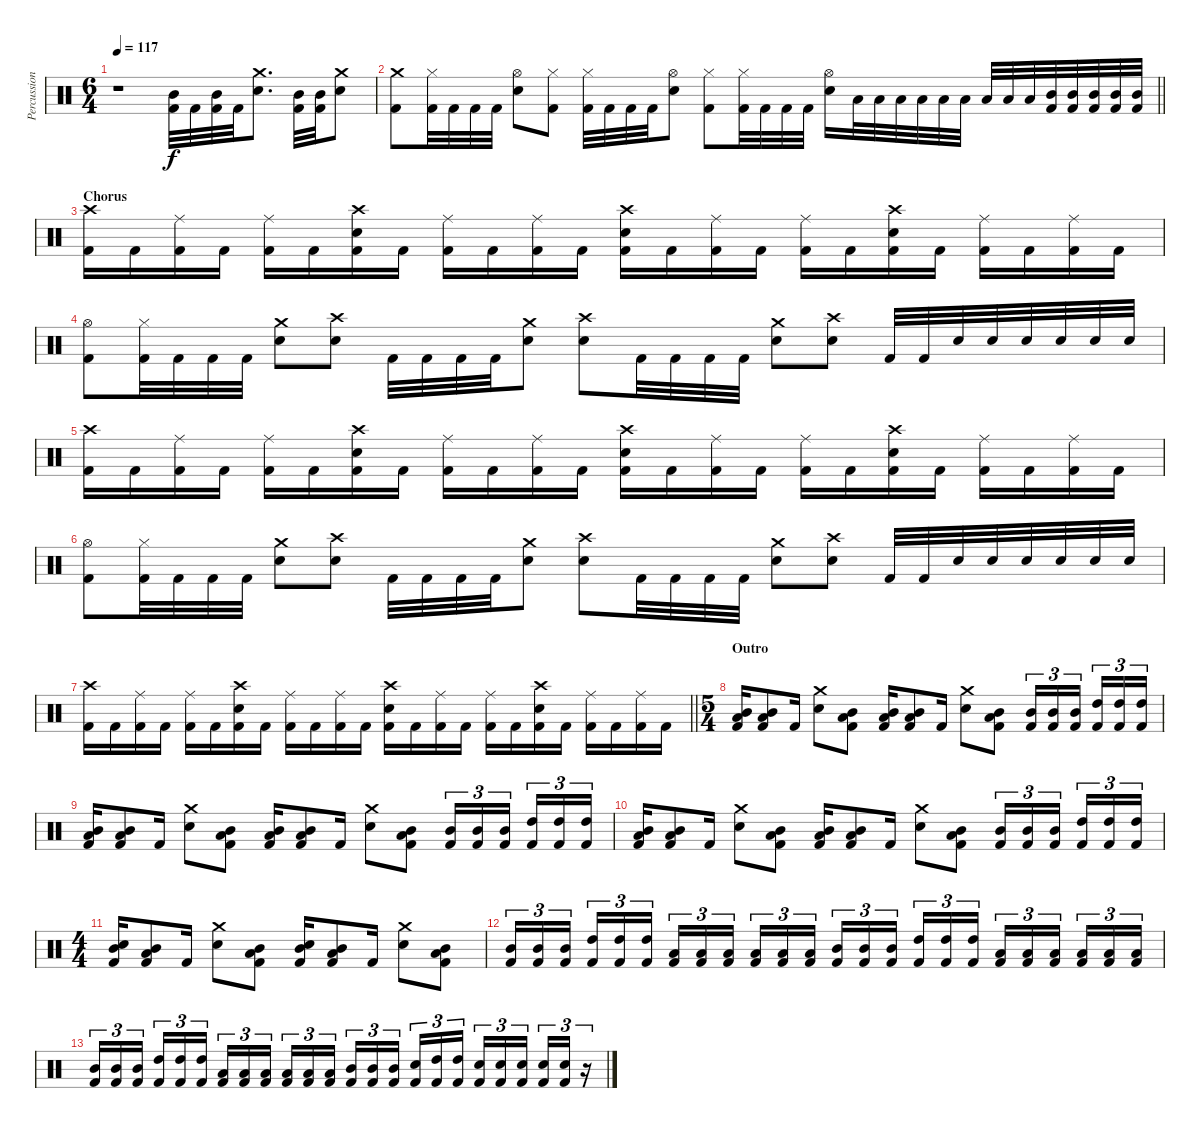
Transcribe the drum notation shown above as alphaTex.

\track ("Percussion" "Percussion") {instrument percussion}
\staff {score}
\articulation defaults
\ts (6 4)
\tempo 117
\clef neutral
\ks c
r.1{dy f} ("Mid Tom (hit)" "Kick (hit) 2").32 "Kick (hit) 2".32 ("Mid Tom (hit)" "Kick (hit) 2").32 "Kick (hit) 2".32 ("Crash medium (hit)" "Electric Snare (hit)").8{d} ("Mid Tom (hit)" "Kick (hit) 2").32 ("Mid Tom (hit)" "Kick (hit) 2").32 ("Crash medium (hit)" "Electric Snare (hit)").8 |
\barLineRight lightlight
("Crash medium (hit)" "Kick (hit) 2").8 ("Hi-Hat (closed)" "Kick (hit) 2").32 "Kick (hit) 2".32 "Kick (hit) 2".32 "Kick (hit) 2".32 ("Hi-Hat (open)" "Electric Snare (hit)").8 ("Hi-Hat (closed)" "Kick (hit) 2").8 ("Hi-Hat (closed)" "Kick (hit) 2").32 "Kick (hit) 2".32 "Kick (hit) 2".32 "Kick (hit) 2".32 ("Hi-Hat (open)" "Electric Snare (hit)").8 ("Hi-Hat (closed)" "Kick (hit) 2").8 ("Hi-Hat (closed)" "Kick (hit) 2").32 "Kick (hit) 2".32 "Kick (hit) 2".32 "Kick (hit) 2".32 ("Hi-Hat (open)" "Electric Snare (hit)").16 "Low Tom (hit)".32 "Low Tom (hit)".32 "Low Tom (hit)".32 "Low Tom (hit)".32 "Low Tom (hit)".32 "Low Tom (hit)".32 "Low Tom (hit)".32 "Low Tom (hit)".32 "Low Tom (hit)".32 ("Mid Tom (hit)" "Kick (hit) 2").32 ("Mid Tom (hit)" "Kick (hit) 2").32 ("Mid Tom (hit)" "Kick (hit) 2").32 ("Mid Tom (hit)" "Kick (hit) 2").32 ("Mid Tom (hit)" "Kick (hit) 2").32 |
\section ("" "Chorus")
("Crash high (hit)" "Kick (hit) 2").16 "Kick (hit) 2".16 ("Ride (middle)" "Kick (hit) 2").16 "Kick (hit) 2".16 ("Ride (middle)" "Kick (hit) 2").16 "Kick (hit) 2".16 ("Crash high (hit)" "Electric Snare (hit)" "Kick (hit) 2").16 "Kick (hit) 2".16 ("Ride (middle)" "Kick (hit) 2").16 "Kick (hit) 2".16 ("Ride (middle)" "Kick (hit) 2").16 "Kick (hit) 2".16 ("Crash high (hit)" "Electric Snare (hit)" "Kick (hit) 2").16 "Kick (hit) 2".16 ("Ride (middle)" "Kick (hit) 2").16 "Kick (hit) 2".16 ("Ride (middle)" "Kick (hit) 2").16 "Kick (hit) 2".16 ("Crash high (hit)" "Electric Snare (hit)" "Kick (hit) 2").16 "Kick (hit) 2".16 ("Ride (middle)" "Kick (hit) 2").16 "Kick (hit) 2".16 ("Ride (middle)" "Kick (hit) 2").16 "Kick (hit) 2".16 |
("Hi-Hat (open)" "Kick (hit) 2").8 ("Hi-Hat (closed)" "Kick (hit) 2").32 "Kick (hit) 2".32 "Kick (hit) 2".32 "Kick (hit) 2".32 ("Crash medium (hit)" "Electric Snare (hit)").8 ("Crash high (hit)" "Electric Snare (hit)").8 "Kick (hit) 2".32 "Kick (hit) 2".32 "Kick (hit) 2".32 "Kick (hit) 2".32 ("Crash medium (hit)" "Electric Snare (hit)").8 ("Crash high (hit)" "Electric Snare (hit)").8 "Kick (hit) 2".32 "Kick (hit) 2".32 "Kick (hit) 2".32 "Kick (hit) 2".32 ("Crash medium (hit)" "Electric Snare (hit)").8 ("Crash high (hit)" "Electric Snare (hit)").8 "Kick (hit) 2".32 "Kick (hit) 2".32 "Electric Snare (hit)".32 "Electric Snare (hit)".32 "Electric Snare (hit)".32 "Electric Snare (hit)".32 "Electric Snare (hit)".32 "Electric Snare (hit)".32 |
("Crash high (hit)" "Kick (hit) 2").16 "Kick (hit) 2".16 ("Ride (middle)" "Kick (hit) 2").16 "Kick (hit) 2".16 ("Ride (middle)" "Kick (hit) 2").16 "Kick (hit) 2".16 ("Crash high (hit)" "Electric Snare (hit)" "Kick (hit) 2").16 "Kick (hit) 2".16 ("Ride (middle)" "Kick (hit) 2").16 "Kick (hit) 2".16 ("Ride (middle)" "Kick (hit) 2").16 "Kick (hit) 2".16 ("Crash high (hit)" "Electric Snare (hit)" "Kick (hit) 2").16 "Kick (hit) 2".16 ("Ride (middle)" "Kick (hit) 2").16 "Kick (hit) 2".16 ("Ride (middle)" "Kick (hit) 2").16 "Kick (hit) 2".16 ("Crash high (hit)" "Electric Snare (hit)" "Kick (hit) 2").16 "Kick (hit) 2".16 ("Ride (middle)" "Kick (hit) 2").16 "Kick (hit) 2".16 ("Ride (middle)" "Kick (hit) 2").16 "Kick (hit) 2".16 |
("Hi-Hat (open)" "Kick (hit) 2").8 ("Hi-Hat (closed)" "Kick (hit) 2").32 "Kick (hit) 2".32 "Kick (hit) 2".32 "Kick (hit) 2".32 ("Crash medium (hit)" "Electric Snare (hit)").8 ("Crash high (hit)" "Electric Snare (hit)").8 "Kick (hit) 2".32 "Kick (hit) 2".32 "Kick (hit) 2".32 "Kick (hit) 2".32 ("Crash medium (hit)" "Electric Snare (hit)").8 ("Crash high (hit)" "Electric Snare (hit)").8 "Kick (hit) 2".32 "Kick (hit) 2".32 "Kick (hit) 2".32 "Kick (hit) 2".32 ("Crash medium (hit)" "Electric Snare (hit)").8 ("Crash high (hit)" "Electric Snare (hit)").8 "Kick (hit) 2".32 "Kick (hit) 2".32 "Electric Snare (hit)".32 "Electric Snare (hit)".32 "Electric Snare (hit)".32 "Electric Snare (hit)".32 "Electric Snare (hit)".32 "Electric Snare (hit)".32 |
\barLineRight lightlight
("Crash high (hit)" "Kick (hit) 2").16 "Kick (hit) 2".16 ("Ride (middle)" "Kick (hit) 2").16 "Kick (hit) 2".16 ("Ride (middle)" "Kick (hit) 2").16 "Kick (hit) 2".16 ("Crash high (hit)" "Electric Snare (hit)" "Kick (hit) 2").16 "Kick (hit) 2".16 ("Ride (middle)" "Kick (hit) 2").16 "Kick (hit) 2".16 ("Ride (middle)" "Kick (hit) 2").16 "Kick (hit) 2".16 ("Crash high (hit)" "Electric Snare (hit)" "Kick (hit) 2").16 "Kick (hit) 2".16 ("Ride (middle)" "Kick (hit) 2").16 "Kick (hit) 2".16 ("Ride (middle)" "Kick (hit) 2").16 "Kick (hit) 2".16 ("Crash high (hit)" "Electric Snare (hit)" "Kick (hit) 2").16 "Kick (hit) 2".16 ("Ride (middle)" "Kick (hit) 2").16 "Kick (hit) 2".16 ("Ride (middle)" "Kick (hit) 2").16 "Kick (hit) 2".16 |
\ts (5 4)
\section ("" "Outro")
("Mid Tom (hit)" "Low Tom (hit)" "Kick (hit) 2").16 ("Mid Tom (hit)" "Low Tom (hit)" "Kick (hit) 2").8 "Kick (hit) 2".16 ("Crash medium (hit)" "Electric Snare (hit)").8 ("Mid Tom (hit)" "Low Tom (hit)" "Kick (hit) 2").8 ("Mid Tom (hit)" "Low Tom (hit)" "Kick (hit) 2").16 ("Mid Tom (hit)" "Low Tom (hit)" "Kick (hit) 2").8 "Kick (hit) 2".16 ("Crash medium (hit)" "Electric Snare (hit)").8 ("Mid Tom (hit)" "Low Tom (hit)" "Kick (hit) 2").8 ("Mid Tom (hit)" "Kick (hit) 2").16{tu (3 2)} ("Mid Tom (hit)" "Kick (hit) 2").16{tu (3 2)} ("Mid Tom (hit)" "Kick (hit) 2").16{tu (3 2) beam splitsecondary} ("High Tom (hit)" "Kick (hit) 2").16{tu (3 2)} ("High Tom (hit)" "Kick (hit) 2").16{tu (3 2)} ("High Tom (hit)" "Kick (hit) 2").16{tu (3 2)} |
("Mid Tom (hit)" "Low Tom (hit)" "Kick (hit) 2").16 ("Mid Tom (hit)" "Low Tom (hit)" "Kick (hit) 2").8 "Kick (hit) 2".16 ("Crash medium (hit)" "Electric Snare (hit)").8 ("Mid Tom (hit)" "Low Tom (hit)" "Kick (hit) 2").8 ("Mid Tom (hit)" "Low Tom (hit)" "Kick (hit) 2").16 ("Mid Tom (hit)" "Low Tom (hit)" "Kick (hit) 2").8 "Kick (hit) 2".16 ("Crash medium (hit)" "Electric Snare (hit)").8 ("Mid Tom (hit)" "Low Tom (hit)" "Kick (hit) 2").8 ("Mid Tom (hit)" "Kick (hit) 2").16{tu (3 2)} ("Mid Tom (hit)" "Kick (hit) 2").16{tu (3 2)} ("Mid Tom (hit)" "Kick (hit) 2").16{tu (3 2) beam splitsecondary} ("High Tom (hit)" "Kick (hit) 2").16{tu (3 2)} ("High Tom (hit)" "Kick (hit) 2").16{tu (3 2)} ("High Tom (hit)" "Kick (hit) 2").16{tu (3 2)} |
("Mid Tom (hit)" "Low Tom (hit)" "Kick (hit) 2").16 ("Mid Tom (hit)" "Low Tom (hit)" "Kick (hit) 2").8 "Kick (hit) 2".16 ("Crash medium (hit)" "Electric Snare (hit)").8 ("Mid Tom (hit)" "Low Tom (hit)" "Kick (hit) 2").8 ("Mid Tom (hit)" "Low Tom (hit)" "Kick (hit) 2").16 ("Mid Tom (hit)" "Low Tom (hit)" "Kick (hit) 2").8 "Kick (hit) 2".16 ("Crash medium (hit)" "Electric Snare (hit)").8 ("Mid Tom (hit)" "Low Tom (hit)" "Kick (hit) 2").8 ("Mid Tom (hit)" "Kick (hit) 2").16{tu (3 2)} ("Mid Tom (hit)" "Kick (hit) 2").16{tu (3 2)} ("Mid Tom (hit)" "Kick (hit) 2").16{tu (3 2) beam splitsecondary} ("High Tom (hit)" "Kick (hit) 2").16{tu (3 2)} ("High Tom (hit)" "Kick (hit) 2").16{tu (3 2)} ("High Tom (hit)" "Kick (hit) 2").16{tu (3 2)} |
\ts (4 4)
("Mid Tom (hit)" "Electric Snare (hit)" "Kick (hit) 2").16 ("Mid Tom (hit)" "Low Tom (hit)" "Kick (hit) 2").8 "Kick (hit) 2".16 ("Crash medium (hit)" "Electric Snare (hit)").8 ("Mid Tom (hit)" "Low Tom (hit)" "Kick (hit) 2").8 ("Mid Tom (hit)" "Electric Snare (hit)" "Kick (hit) 2").16 ("Mid Tom (hit)" "Low Tom (hit)" "Kick (hit) 2").8 "Kick (hit) 2".16 ("Crash medium (hit)" "Electric Snare (hit)").8 ("Mid Tom (hit)" "Low Tom (hit)" "Kick (hit) 2").8 |
("Mid Tom (hit)" "Kick (hit) 2").16{tu (3 2)} ("Mid Tom (hit)" "Kick (hit) 2").16{tu (3 2)} ("Mid Tom (hit)" "Kick (hit) 2").16{tu (3 2) beam splitsecondary} ("High Tom (hit)" "Kick (hit) 2").16{tu (3 2)} ("High Tom (hit)" "Kick (hit) 2").16{tu (3 2)} ("High Tom (hit)" "Kick (hit) 2").16{tu (3 2)} ("Low Tom (hit)" "Kick (hit) 2").16{tu (3 2)} ("Low Tom (hit)" "Kick (hit) 2").16{tu (3 2)} ("Low Tom (hit)" "Kick (hit) 2").16{tu (3 2) beam splitsecondary} ("Low Floor Tom (hit)" "Kick (hit) 2").16{tu (3 2)} ("Low Floor Tom (hit)" "Kick (hit) 2").16{tu (3 2)} ("Low Floor Tom (hit)" "Kick (hit) 2").16{tu (3 2)} ("Mid Tom (hit)" "Kick (hit) 2").16{tu (3 2)} ("Mid Tom (hit)" "Kick (hit) 2").16{tu (3 2)} ("Mid Tom (hit)" "Kick (hit) 2").16{tu (3 2) beam splitsecondary} ("High Tom (hit)" "Kick (hit) 2").16{tu (3 2)} ("High Tom (hit)" "Kick (hit) 2").16{tu (3 2)} ("High Tom (hit)" "Kick (hit) 2").16{tu (3 2)} ("Low Tom (hit)" "Kick (hit) 2").16{tu (3 2)} ("Low Tom (hit)" "Kick (hit) 2").16{tu (3 2)} ("Low Tom (hit)" "Kick (hit) 2").16{tu (3 2) beam splitsecondary} ("Low Floor Tom (hit)" "Kick (hit) 2").16{tu (3 2)} ("Low Floor Tom (hit)" "Kick (hit) 2").16{tu (3 2)} ("Low Floor Tom (hit)" "Kick (hit) 2").16{tu (3 2)} |
("Mid Tom (hit)" "Kick (hit) 2").16{tu (3 2)} ("Mid Tom (hit)" "Kick (hit) 2").16{tu (3 2)} ("Mid Tom (hit)" "Kick (hit) 2").16{tu (3 2) beam splitsecondary} ("High Tom (hit)" "Kick (hit) 2").16{tu (3 2)} ("High Tom (hit)" "Kick (hit) 2").16{tu (3 2)} ("High Tom (hit)" "Kick (hit) 2").16{tu (3 2)} ("Low Tom (hit)" "Kick (hit) 2").16{tu (3 2)} ("Low Tom (hit)" "Kick (hit) 2").16{tu (3 2)} ("Low Tom (hit)" "Kick (hit) 2").16{tu (3 2) beam splitsecondary} ("Low Floor Tom (hit)" "Kick (hit) 2").16{tu (3 2)} ("Low Floor Tom (hit)" "Kick (hit) 2").16{tu (3 2)} ("Low Floor Tom (hit)" "Kick (hit) 2").16{tu (3 2)} ("Mid Tom (hit)" "Kick (hit) 2").16{tu (3 2)} ("Mid Tom (hit)" "Kick (hit) 2").16{tu (3 2)} ("Mid Tom (hit)" "Kick (hit) 2").16{tu (3 2) beam splitsecondary} ("Electric Snare (hit)" "Kick (hit) 2").16{tu (3 2)} ("High Tom (hit)" "Kick (hit) 2").16{tu (3 2)} ("High Tom (hit)" "Kick (hit) 2").16{tu (3 2)} ("Electric Snare (hit)" "Kick (hit) 2").16{tu (3 2)} ("Electric Snare (hit)" "Kick (hit) 2").16{tu (3 2)} ("Electric Snare (hit)" "Kick (hit) 2").16{tu (3 2) beam splitsecondary} ("Electric Snare (hit)" "Kick (hit) 2").16{tu (3 2)} ("Electric Snare (hit)" "Kick (hit) 2").16{tu (3 2)} r.16{tu (3 2)}
